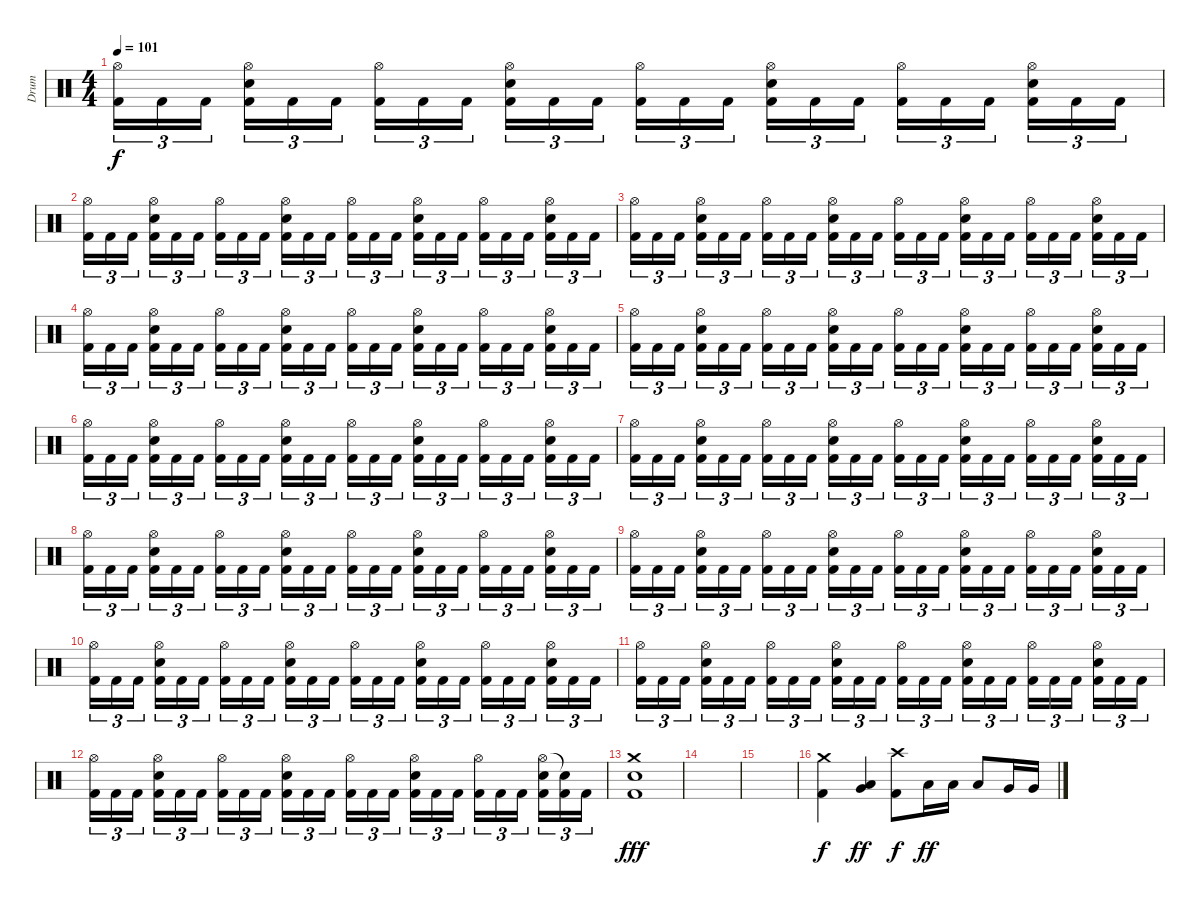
\track ("Drum" "Drum") {instrument percussion}
\staff {score}
\articulation defaults
\ts (4 4)
\tempo 101
\clef neutral
\ks c
("Hi-Hat (open)" "Kick (hit) 2").16{tu (3 2) dy f} "Kick (hit) 2".16{tu (3 2)} "Kick (hit) 2".16{tu (3 2) beam splitsecondary} ("Hi-Hat (open)" "Snare (hit) 2" "Kick (hit) 2").16{tu (3 2)} "Kick (hit) 2".16{tu (3 2)} "Kick (hit) 2".16{tu (3 2)} ("Hi-Hat (open)" "Kick (hit) 2").16{tu (3 2)} "Kick (hit) 2".16{tu (3 2)} "Kick (hit) 2".16{tu (3 2) beam splitsecondary} ("Hi-Hat (open)" "Snare (hit) 2" "Kick (hit) 2").16{tu (3 2)} "Kick (hit) 2".16{tu (3 2)} "Kick (hit) 2".16{tu (3 2)} ("Hi-Hat (open)" "Kick (hit) 2").16{tu (3 2)} "Kick (hit) 2".16{tu (3 2)} "Kick (hit) 2".16{tu (3 2) beam splitsecondary} ("Hi-Hat (open)" "Snare (hit) 2" "Kick (hit) 2").16{tu (3 2)} "Kick (hit) 2".16{tu (3 2)} "Kick (hit) 2".16{tu (3 2)} ("Hi-Hat (open)" "Kick (hit) 2").16{tu (3 2)} "Kick (hit) 2".16{tu (3 2)} "Kick (hit) 2".16{tu (3 2) beam splitsecondary} ("Hi-Hat (open)" "Snare (hit) 2" "Kick (hit) 2").16{tu (3 2)} "Kick (hit) 2".16{tu (3 2)} "Kick (hit) 2".16{tu (3 2)} |
("Hi-Hat (open)" "Kick (hit) 2").16{tu (3 2)} "Kick (hit) 2".16{tu (3 2)} "Kick (hit) 2".16{tu (3 2) beam splitsecondary} ("Hi-Hat (open)" "Snare (hit) 2" "Kick (hit) 2").16{tu (3 2)} "Kick (hit) 2".16{tu (3 2)} "Kick (hit) 2".16{tu (3 2)} ("Hi-Hat (open)" "Kick (hit) 2").16{tu (3 2)} "Kick (hit) 2".16{tu (3 2)} "Kick (hit) 2".16{tu (3 2) beam splitsecondary} ("Hi-Hat (open)" "Snare (hit) 2" "Kick (hit) 2").16{tu (3 2)} "Kick (hit) 2".16{tu (3 2)} "Kick (hit) 2".16{tu (3 2)} ("Hi-Hat (open)" "Kick (hit) 2").16{tu (3 2)} "Kick (hit) 2".16{tu (3 2)} "Kick (hit) 2".16{tu (3 2) beam splitsecondary} ("Hi-Hat (open)" "Snare (hit) 2" "Kick (hit) 2").16{tu (3 2)} "Kick (hit) 2".16{tu (3 2)} "Kick (hit) 2".16{tu (3 2)} ("Hi-Hat (open)" "Kick (hit) 2").16{tu (3 2)} "Kick (hit) 2".16{tu (3 2)} "Kick (hit) 2".16{tu (3 2) beam splitsecondary} ("Hi-Hat (open)" "Snare (hit) 2" "Kick (hit) 2").16{tu (3 2)} "Kick (hit) 2".16{tu (3 2)} "Kick (hit) 2".16{tu (3 2)} |
("Hi-Hat (open)" "Kick (hit) 2").16{tu (3 2)} "Kick (hit) 2".16{tu (3 2)} "Kick (hit) 2".16{tu (3 2) beam splitsecondary} ("Hi-Hat (open)" "Snare (hit) 2" "Kick (hit) 2").16{tu (3 2)} "Kick (hit) 2".16{tu (3 2)} "Kick (hit) 2".16{tu (3 2)} ("Hi-Hat (open)" "Kick (hit) 2").16{tu (3 2)} "Kick (hit) 2".16{tu (3 2)} "Kick (hit) 2".16{tu (3 2) beam splitsecondary} ("Hi-Hat (open)" "Snare (hit) 2" "Kick (hit) 2").16{tu (3 2)} "Kick (hit) 2".16{tu (3 2)} "Kick (hit) 2".16{tu (3 2)} ("Hi-Hat (open)" "Kick (hit) 2").16{tu (3 2)} "Kick (hit) 2".16{tu (3 2)} "Kick (hit) 2".16{tu (3 2) beam splitsecondary} ("Hi-Hat (open)" "Snare (hit) 2" "Kick (hit) 2").16{tu (3 2)} "Kick (hit) 2".16{tu (3 2)} "Kick (hit) 2".16{tu (3 2)} ("Hi-Hat (open)" "Kick (hit) 2").16{tu (3 2)} "Kick (hit) 2".16{tu (3 2)} "Kick (hit) 2".16{tu (3 2) beam splitsecondary} ("Hi-Hat (open)" "Snare (hit) 2" "Kick (hit) 2").16{tu (3 2)} "Kick (hit) 2".16{tu (3 2)} "Kick (hit) 2".16{tu (3 2)} |
("Hi-Hat (open)" "Kick (hit) 2").16{tu (3 2)} "Kick (hit) 2".16{tu (3 2)} "Kick (hit) 2".16{tu (3 2) beam splitsecondary} ("Hi-Hat (open)" "Snare (hit) 2" "Kick (hit) 2").16{tu (3 2)} "Kick (hit) 2".16{tu (3 2)} "Kick (hit) 2".16{tu (3 2)} ("Hi-Hat (open)" "Kick (hit) 2").16{tu (3 2)} "Kick (hit) 2".16{tu (3 2)} "Kick (hit) 2".16{tu (3 2) beam splitsecondary} ("Hi-Hat (open)" "Snare (hit) 2" "Kick (hit) 2").16{tu (3 2)} "Kick (hit) 2".16{tu (3 2)} "Kick (hit) 2".16{tu (3 2)} ("Hi-Hat (open)" "Kick (hit) 2").16{tu (3 2)} "Kick (hit) 2".16{tu (3 2)} "Kick (hit) 2".16{tu (3 2) beam splitsecondary} ("Hi-Hat (open)" "Snare (hit) 2" "Kick (hit) 2").16{tu (3 2)} "Kick (hit) 2".16{tu (3 2)} "Kick (hit) 2".16{tu (3 2)} ("Hi-Hat (open)" "Kick (hit) 2").16{tu (3 2)} "Kick (hit) 2".16{tu (3 2)} "Kick (hit) 2".16{tu (3 2) beam splitsecondary} ("Hi-Hat (open)" "Snare (hit) 2" "Kick (hit) 2").16{tu (3 2)} "Kick (hit) 2".16{tu (3 2)} "Kick (hit) 2".16{tu (3 2)} |
("Hi-Hat (open)" "Kick (hit) 2").16{tu (3 2)} "Kick (hit) 2".16{tu (3 2)} "Kick (hit) 2".16{tu (3 2) beam splitsecondary} ("Hi-Hat (open)" "Snare (hit) 2" "Kick (hit) 2").16{tu (3 2)} "Kick (hit) 2".16{tu (3 2)} "Kick (hit) 2".16{tu (3 2)} ("Hi-Hat (open)" "Kick (hit) 2").16{tu (3 2)} "Kick (hit) 2".16{tu (3 2)} "Kick (hit) 2".16{tu (3 2) beam splitsecondary} ("Hi-Hat (open)" "Snare (hit) 2" "Kick (hit) 2").16{tu (3 2)} "Kick (hit) 2".16{tu (3 2)} "Kick (hit) 2".16{tu (3 2)} ("Hi-Hat (open)" "Kick (hit) 2").16{tu (3 2)} "Kick (hit) 2".16{tu (3 2)} "Kick (hit) 2".16{tu (3 2) beam splitsecondary} ("Hi-Hat (open)" "Snare (hit) 2" "Kick (hit) 2").16{tu (3 2)} "Kick (hit) 2".16{tu (3 2)} "Kick (hit) 2".16{tu (3 2)} ("Hi-Hat (open)" "Kick (hit) 2").16{tu (3 2)} "Kick (hit) 2".16{tu (3 2)} "Kick (hit) 2".16{tu (3 2) beam splitsecondary} ("Hi-Hat (open)" "Snare (hit) 2" "Kick (hit) 2").16{tu (3 2)} "Kick (hit) 2".16{tu (3 2)} "Kick (hit) 2".16{tu (3 2)} |
("Hi-Hat (open)" "Kick (hit) 2").16{tu (3 2)} "Kick (hit) 2".16{tu (3 2)} "Kick (hit) 2".16{tu (3 2) beam splitsecondary} ("Hi-Hat (open)" "Snare (hit) 2" "Kick (hit) 2").16{tu (3 2)} "Kick (hit) 2".16{tu (3 2)} "Kick (hit) 2".16{tu (3 2)} ("Hi-Hat (open)" "Kick (hit) 2").16{tu (3 2)} "Kick (hit) 2".16{tu (3 2)} "Kick (hit) 2".16{tu (3 2) beam splitsecondary} ("Hi-Hat (open)" "Snare (hit) 2" "Kick (hit) 2").16{tu (3 2)} "Kick (hit) 2".16{tu (3 2)} "Kick (hit) 2".16{tu (3 2)} ("Hi-Hat (open)" "Kick (hit) 2").16{tu (3 2)} "Kick (hit) 2".16{tu (3 2)} "Kick (hit) 2".16{tu (3 2) beam splitsecondary} ("Hi-Hat (open)" "Snare (hit) 2" "Kick (hit) 2").16{tu (3 2)} "Kick (hit) 2".16{tu (3 2)} "Kick (hit) 2".16{tu (3 2)} ("Hi-Hat (open)" "Kick (hit) 2").16{tu (3 2)} "Kick (hit) 2".16{tu (3 2)} "Kick (hit) 2".16{tu (3 2) beam splitsecondary} ("Hi-Hat (open)" "Snare (hit) 2" "Kick (hit) 2").16{tu (3 2)} "Kick (hit) 2".16{tu (3 2)} "Kick (hit) 2".16{tu (3 2)} |
("Hi-Hat (open)" "Kick (hit) 2").16{tu (3 2)} "Kick (hit) 2".16{tu (3 2)} "Kick (hit) 2".16{tu (3 2) beam splitsecondary} ("Hi-Hat (open)" "Snare (hit) 2" "Kick (hit) 2").16{tu (3 2)} "Kick (hit) 2".16{tu (3 2)} "Kick (hit) 2".16{tu (3 2)} ("Hi-Hat (open)" "Kick (hit) 2").16{tu (3 2)} "Kick (hit) 2".16{tu (3 2)} "Kick (hit) 2".16{tu (3 2) beam splitsecondary} ("Hi-Hat (open)" "Snare (hit) 2" "Kick (hit) 2").16{tu (3 2)} "Kick (hit) 2".16{tu (3 2)} "Kick (hit) 2".16{tu (3 2)} ("Hi-Hat (open)" "Kick (hit) 2").16{tu (3 2)} "Kick (hit) 2".16{tu (3 2)} "Kick (hit) 2".16{tu (3 2) beam splitsecondary} ("Hi-Hat (open)" "Snare (hit) 2" "Kick (hit) 2").16{tu (3 2)} "Kick (hit) 2".16{tu (3 2)} "Kick (hit) 2".16{tu (3 2)} ("Hi-Hat (open)" "Kick (hit) 2").16{tu (3 2)} "Kick (hit) 2".16{tu (3 2)} "Kick (hit) 2".16{tu (3 2) beam splitsecondary} ("Hi-Hat (open)" "Snare (hit) 2" "Kick (hit) 2").16{tu (3 2)} "Kick (hit) 2".16{tu (3 2)} "Kick (hit) 2".16{tu (3 2)} |
("Hi-Hat (open)" "Kick (hit) 2").16{tu (3 2)} "Kick (hit) 2".16{tu (3 2)} "Kick (hit) 2".16{tu (3 2) beam splitsecondary} ("Hi-Hat (open)" "Snare (hit) 2" "Kick (hit) 2").16{tu (3 2)} "Kick (hit) 2".16{tu (3 2)} "Kick (hit) 2".16{tu (3 2)} ("Hi-Hat (open)" "Kick (hit) 2").16{tu (3 2)} "Kick (hit) 2".16{tu (3 2)} "Kick (hit) 2".16{tu (3 2) beam splitsecondary} ("Hi-Hat (open)" "Snare (hit) 2" "Kick (hit) 2").16{tu (3 2)} "Kick (hit) 2".16{tu (3 2)} "Kick (hit) 2".16{tu (3 2)} ("Hi-Hat (open)" "Kick (hit) 2").16{tu (3 2)} "Kick (hit) 2".16{tu (3 2)} "Kick (hit) 2".16{tu (3 2) beam splitsecondary} ("Hi-Hat (open)" "Snare (hit) 2" "Kick (hit) 2").16{tu (3 2)} "Kick (hit) 2".16{tu (3 2)} "Kick (hit) 2".16{tu (3 2)} ("Hi-Hat (open)" "Kick (hit) 2").16{tu (3 2)} "Kick (hit) 2".16{tu (3 2)} "Kick (hit) 2".16{tu (3 2) beam splitsecondary} ("Hi-Hat (open)" "Snare (hit) 2" "Kick (hit) 2").16{tu (3 2)} "Kick (hit) 2".16{tu (3 2)} "Kick (hit) 2".16{tu (3 2)} |
("Hi-Hat (open)" "Kick (hit) 2").16{tu (3 2)} "Kick (hit) 2".16{tu (3 2)} "Kick (hit) 2".16{tu (3 2) beam splitsecondary} ("Hi-Hat (open)" "Snare (hit) 2" "Kick (hit) 2").16{tu (3 2)} "Kick (hit) 2".16{tu (3 2)} "Kick (hit) 2".16{tu (3 2)} ("Hi-Hat (open)" "Kick (hit) 2").16{tu (3 2)} "Kick (hit) 2".16{tu (3 2)} "Kick (hit) 2".16{tu (3 2) beam splitsecondary} ("Hi-Hat (open)" "Snare (hit) 2" "Kick (hit) 2").16{tu (3 2)} "Kick (hit) 2".16{tu (3 2)} "Kick (hit) 2".16{tu (3 2)} ("Hi-Hat (open)" "Kick (hit) 2").16{tu (3 2)} "Kick (hit) 2".16{tu (3 2)} "Kick (hit) 2".16{tu (3 2) beam splitsecondary} ("Hi-Hat (open)" "Snare (hit) 2" "Kick (hit) 2").16{tu (3 2)} "Kick (hit) 2".16{tu (3 2)} "Kick (hit) 2".16{tu (3 2)} ("Hi-Hat (open)" "Kick (hit) 2").16{tu (3 2)} "Kick (hit) 2".16{tu (3 2)} "Kick (hit) 2".16{tu (3 2) beam splitsecondary} ("Hi-Hat (open)" "Snare (hit) 2" "Kick (hit) 2").16{tu (3 2)} "Kick (hit) 2".16{tu (3 2)} "Kick (hit) 2".16{tu (3 2)} |
("Hi-Hat (open)" "Kick (hit) 2").16{tu (3 2)} "Kick (hit) 2".16{tu (3 2)} "Kick (hit) 2".16{tu (3 2) beam splitsecondary} ("Hi-Hat (open)" "Snare (hit) 2" "Kick (hit) 2").16{tu (3 2)} "Kick (hit) 2".16{tu (3 2)} "Kick (hit) 2".16{tu (3 2)} ("Hi-Hat (open)" "Kick (hit) 2").16{tu (3 2)} "Kick (hit) 2".16{tu (3 2)} "Kick (hit) 2".16{tu (3 2) beam splitsecondary} ("Hi-Hat (open)" "Snare (hit) 2" "Kick (hit) 2").16{tu (3 2)} "Kick (hit) 2".16{tu (3 2)} "Kick (hit) 2".16{tu (3 2)} ("Hi-Hat (open)" "Kick (hit) 2").16{tu (3 2)} "Kick (hit) 2".16{tu (3 2)} "Kick (hit) 2".16{tu (3 2) beam splitsecondary} ("Hi-Hat (open)" "Snare (hit) 2" "Kick (hit) 2").16{tu (3 2)} "Kick (hit) 2".16{tu (3 2)} "Kick (hit) 2".16{tu (3 2)} ("Hi-Hat (open)" "Kick (hit) 2").16{tu (3 2)} "Kick (hit) 2".16{tu (3 2)} "Kick (hit) 2".16{tu (3 2) beam splitsecondary} ("Hi-Hat (open)" "Snare (hit) 2" "Kick (hit) 2").16{tu (3 2)} "Kick (hit) 2".16{tu (3 2)} "Kick (hit) 2".16{tu (3 2)} |
("Hi-Hat (open)" "Kick (hit) 2").16{tu (3 2)} "Kick (hit) 2".16{tu (3 2)} "Kick (hit) 2".16{tu (3 2) beam splitsecondary} ("Hi-Hat (open)" "Snare (hit) 2" "Kick (hit) 2").16{tu (3 2)} "Kick (hit) 2".16{tu (3 2)} "Kick (hit) 2".16{tu (3 2)} ("Hi-Hat (open)" "Kick (hit) 2").16{tu (3 2)} "Kick (hit) 2".16{tu (3 2)} "Kick (hit) 2".16{tu (3 2) beam splitsecondary} ("Hi-Hat (open)" "Snare (hit) 2" "Kick (hit) 2").16{tu (3 2)} "Kick (hit) 2".16{tu (3 2)} "Kick (hit) 2".16{tu (3 2)} ("Hi-Hat (open)" "Kick (hit) 2").16{tu (3 2)} "Kick (hit) 2".16{tu (3 2)} "Kick (hit) 2".16{tu (3 2) beam splitsecondary} ("Hi-Hat (open)" "Snare (hit) 2" "Kick (hit) 2").16{tu (3 2)} "Kick (hit) 2".16{tu (3 2)} "Kick (hit) 2".16{tu (3 2)} ("Hi-Hat (open)" "Kick (hit) 2").16{tu (3 2)} "Kick (hit) 2".16{tu (3 2)} "Kick (hit) 2".16{tu (3 2) beam splitsecondary} ("Hi-Hat (open)" "Snare (hit) 2" "Kick (hit) 2").16{tu (3 2)} "Kick (hit) 2".16{tu (3 2)} "Kick (hit) 2".16{tu (3 2)} |
("Hi-Hat (open)" "Kick (hit) 2").16{tu (3 2)} "Kick (hit) 2".16{tu (3 2)} "Kick (hit) 2".16{tu (3 2) beam splitsecondary} ("Hi-Hat (open)" "Snare (hit) 2" "Kick (hit) 2").16{tu (3 2)} "Kick (hit) 2".16{tu (3 2)} "Kick (hit) 2".16{tu (3 2)} ("Hi-Hat (open)" "Kick (hit) 2").16{tu (3 2)} "Kick (hit) 2".16{tu (3 2)} "Kick (hit) 2".16{tu (3 2) beam splitsecondary} ("Hi-Hat (open)" "Snare (hit) 2" "Kick (hit) 2").16{tu (3 2)} "Kick (hit) 2".16{tu (3 2)} "Kick (hit) 2".16{tu (3 2)} ("Hi-Hat (open)" "Kick (hit) 2").16{tu (3 2)} "Kick (hit) 2".16{tu (3 2)} "Kick (hit) 2".16{tu (3 2) beam splitsecondary} ("Hi-Hat (open)" "Snare (hit) 2" "Kick (hit) 2").16{tu (3 2)} "Kick (hit) 2".16{tu (3 2)} "Kick (hit) 2".16{tu (3 2)} ("Hi-Hat (open)" "Kick (hit) 2").16{tu (3 2)} "Kick (hit) 2".16{tu (3 2)} "Kick (hit) 2".16{tu (3 2) beam splitsecondary} ("Hi-Hat (open)" "Snare (hit) 2" "Kick (hit) 2").16{tu (3 2)} ("Snare (hit)"{t} "Kick (hit) 2").16{tu (3 2)} "Kick (hit) 2".16{tu (3 2)} |
("Crash medium (hit)" "Snare (hit) 2" "Kick (hit) 2").1{dy fff} |
|
|
("Crash medium (hit)" "Kick (hit) 2").4{dy f} ("Low Tom (hit)" "Very Low Tom (hit)").4{dy ff} ("Crash high (hit)" "Kick (hit) 2").8{dy f} "Low Tom (hit)".16{dy ff} "Low Tom (hit)".16 "Low Tom (hit)".8 "Very Low Tom (hit)".16 "Very Low Tom (hit)".16
